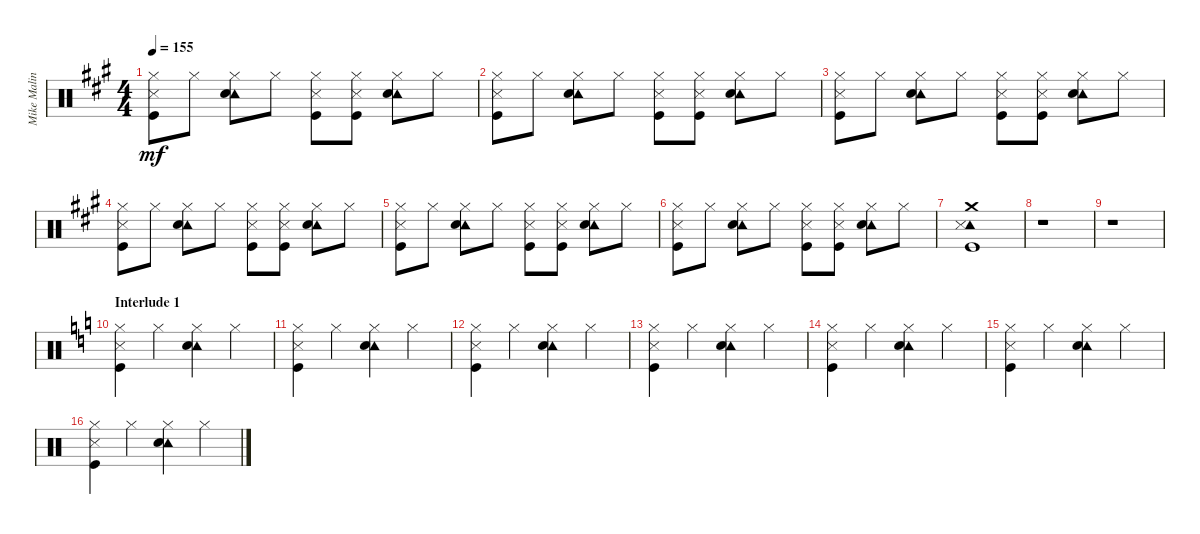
\track ("Mike Malinin - Drums" "Mike Malin") {instrument percussion}
\staff {score}
\articulation defaults
\ts (4 4)
\tempo 155
\clef neutral
\ks a
("Hi-Hat (closed)" "Metronome (hit)" "Kick (hit)").8{dy mf} "Hi-Hat (closed)".8 ("Tambourine (hit)" "Hi-Hat (closed)" "Electric Snare (hit)").8 "Hi-Hat (closed)".8 ("Hi-Hat (closed)" "Metronome (hit)" "Kick (hit)").8 ("Hi-Hat (closed)" "Metronome (hit)" "Kick (hit)").8 ("Tambourine (hit)" "Hi-Hat (closed)" "Electric Snare (hit)").8 "Hi-Hat (closed)".8 |
("Hi-Hat (closed)" "Metronome (hit)" "Kick (hit)").8 "Hi-Hat (closed)".8 ("Tambourine (hit)" "Hi-Hat (closed)" "Electric Snare (hit)").8 "Hi-Hat (closed)".8 ("Hi-Hat (closed)" "Metronome (hit)" "Kick (hit)").8 ("Hi-Hat (closed)" "Metronome (hit)" "Kick (hit)").8 ("Tambourine (hit)" "Hi-Hat (closed)" "Electric Snare (hit)").8 "Hi-Hat (closed)".8 |
("Hi-Hat (closed)" "Metronome (hit)" "Kick (hit)").8 "Hi-Hat (closed)".8 ("Tambourine (hit)" "Hi-Hat (closed)" "Electric Snare (hit)").8 "Hi-Hat (closed)".8 ("Hi-Hat (closed)" "Metronome (hit)" "Kick (hit)").8 ("Hi-Hat (closed)" "Metronome (hit)" "Kick (hit)").8 ("Tambourine (hit)" "Hi-Hat (closed)" "Electric Snare (hit)").8 "Hi-Hat (closed)".8 |
("Hi-Hat (closed)" "Metronome (hit)" "Kick (hit)").8 "Hi-Hat (closed)".8 ("Tambourine (hit)" "Hi-Hat (closed)" "Electric Snare (hit)").8 "Hi-Hat (closed)".8 ("Hi-Hat (closed)" "Metronome (hit)" "Kick (hit)").8 ("Hi-Hat (closed)" "Metronome (hit)" "Kick (hit)").8 ("Tambourine (hit)" "Hi-Hat (closed)" "Electric Snare (hit)").8 "Hi-Hat (closed)".8 |
("Hi-Hat (closed)" "Metronome (hit)" "Kick (hit)").8 "Hi-Hat (closed)".8 ("Tambourine (hit)" "Hi-Hat (closed)" "Electric Snare (hit)").8 "Hi-Hat (closed)".8 ("Hi-Hat (closed)" "Metronome (hit)" "Kick (hit)").8 ("Hi-Hat (closed)" "Metronome (hit)" "Kick (hit)").8 ("Tambourine (hit)" "Hi-Hat (closed)" "Electric Snare (hit)").8 "Hi-Hat (closed)".8 |
("Hi-Hat (closed)" "Metronome (hit)" "Kick (hit)").8 "Hi-Hat (closed)".8 ("Tambourine (hit)" "Hi-Hat (closed)" "Electric Snare (hit)").8 "Hi-Hat (closed)".8 ("Hi-Hat (closed)" "Metronome (hit)" "Kick (hit)").8 ("Hi-Hat (closed)" "Metronome (hit)" "Kick (hit)").8 ("Tambourine (hit)" "Hi-Hat (closed)" "Electric Snare (hit)").8 "Hi-Hat (closed)".8 |
("Tambourine (hit)" "Crash medium (hit)" "Metronome (hit)" "Kick (hit)").1 |
r.1 |
r.1 |
\section ("" "Interlude 1")
\ks c
("Hi-Hat (closed)" "Metronome (hit)" "Kick (hit)").4 "Hi-Hat (closed)".4 ("Tambourine (hit)" "Hi-Hat (closed)" "Electric Snare (hit)").4 "Hi-Hat (closed)".4 |
("Hi-Hat (closed)" "Metronome (hit)" "Kick (hit)").4 "Hi-Hat (closed)".4 ("Tambourine (hit)" "Hi-Hat (closed)" "Electric Snare (hit)").4 "Hi-Hat (closed)".4 |
("Hi-Hat (closed)" "Metronome (hit)" "Kick (hit)").4 "Hi-Hat (closed)".4 ("Tambourine (hit)" "Hi-Hat (closed)" "Electric Snare (hit)").4 "Hi-Hat (closed)".4 |
("Hi-Hat (closed)" "Metronome (hit)" "Kick (hit)").4 "Hi-Hat (closed)".4 ("Tambourine (hit)" "Hi-Hat (closed)" "Electric Snare (hit)").4 "Hi-Hat (closed)".4 |
("Hi-Hat (closed)" "Metronome (hit)" "Kick (hit)").4 "Hi-Hat (closed)".4 ("Tambourine (hit)" "Hi-Hat (closed)" "Electric Snare (hit)").4 "Hi-Hat (closed)".4 |
("Hi-Hat (closed)" "Metronome (hit)" "Kick (hit)").4 "Hi-Hat (closed)".4 ("Tambourine (hit)" "Hi-Hat (closed)" "Electric Snare (hit)").4 "Hi-Hat (closed)".4 |
("Hi-Hat (closed)" "Metronome (hit)" "Kick (hit)").4 "Hi-Hat (closed)".4 ("Tambourine (hit)" "Hi-Hat (closed)" "Electric Snare (hit)").4 "Hi-Hat (closed)".4
